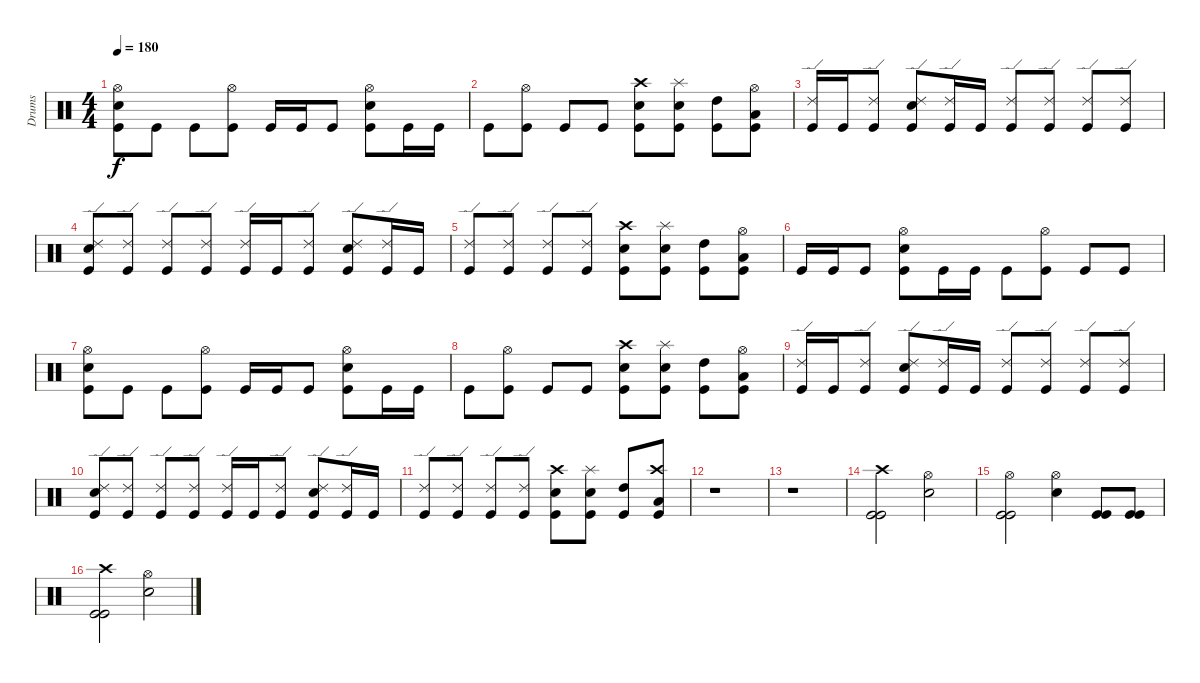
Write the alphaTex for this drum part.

\track ("Drums" "Drums") {instrument percussion}
\staff {score}
\articulation defaults
\ts (4 4)
\tempo 180
\clef neutral
\ks c
("Hi-Hat (open)" "Snare (hit) 2" "Kick (hit)").8{dy f} "Kick (hit)".8 "Kick (hit)".8 ("Hi-Hat (open)" "Kick (hit)").8 "Kick (hit)".16 "Kick (hit)".16 "Kick (hit)".8 ("Hi-Hat (open)" "Snare (hit) 2" "Kick (hit)").8 "Kick (hit)".16 "Kick (hit)".16 |
"Kick (hit)".8 ("Hi-Hat (open)" "Kick (hit)").8 "Kick (hit)".8 "Kick (hit)".8 ("Crash high (hit)" "Snare (hit) 2" "Kick (hit)").8 ("Splash (hit)" "Snare (hit) 2" "Kick (hit)").8 ("High Tom (hit)" "Kick (hit)").8 ("Hi-Hat (open)" "Low Tom (hit)" "Kick (hit)").8 |
("Ride (edge) 2" "Kick (hit)").16 "Kick (hit)".16 ("Ride (edge) 2" "Kick (hit)").8 ("Ride (edge) 2" "Snare (hit) 2" "Kick (hit)").8 ("Ride (edge) 2" "Kick (hit)").16 "Kick (hit)".16 ("Ride (edge) 2" "Kick (hit)").8 ("Ride (edge) 2" "Kick (hit)").8 ("Ride (edge) 2" "Kick (hit)").8 ("Ride (edge) 2" "Kick (hit)").8 |
("Ride (edge) 2" "Snare (hit) 2" "Kick (hit)").8 ("Ride (edge) 2" "Kick (hit)").8 ("Ride (edge) 2" "Kick (hit)").8 ("Ride (edge) 2" "Kick (hit)").8 ("Ride (edge) 2" "Kick (hit)").16 "Kick (hit)".16 ("Ride (edge) 2" "Kick (hit)").8 ("Ride (edge) 2" "Snare (hit) 2" "Kick (hit)").8 ("Ride (edge) 2" "Kick (hit)").16 "Kick (hit)".16 |
("Ride (edge) 2" "Kick (hit)").8 ("Ride (edge) 2" "Kick (hit)").8 ("Ride (edge) 2" "Kick (hit)").8 ("Ride (edge) 2" "Kick (hit)").8 ("Crash high (hit)" "Snare (hit) 2" "Kick (hit)").8 ("Splash (hit)" "Snare (hit) 2" "Kick (hit)").8 ("High Tom (hit)" "Kick (hit)").8 ("Hi-Hat (open)" "Low Tom (hit)" "Kick (hit)").8 |
"Kick (hit)".16 "Kick (hit)".16 "Kick (hit)".8 ("Hi-Hat (open)" "Snare (hit) 2" "Kick (hit)").8 "Kick (hit)".16 "Kick (hit)".16 "Kick (hit)".8 ("Hi-Hat (open)" "Kick (hit)").8 "Kick (hit)".8 "Kick (hit)".8 |
("Hi-Hat (open)" "Snare (hit) 2" "Kick (hit)").8 "Kick (hit)".8 "Kick (hit)".8 ("Hi-Hat (open)" "Kick (hit)").8 "Kick (hit)".16 "Kick (hit)".16 "Kick (hit)".8 ("Hi-Hat (open)" "Snare (hit) 2" "Kick (hit)").8 "Kick (hit)".16 "Kick (hit)".16 |
"Kick (hit)".8 ("Hi-Hat (open)" "Kick (hit)").8 "Kick (hit)".8 "Kick (hit)".8 ("Crash high (hit)" "Snare (hit) 2" "Kick (hit)").8 ("Splash (hit)" "Snare (hit) 2" "Kick (hit)").8 ("High Tom (hit)" "Kick (hit)").8 ("Hi-Hat (open)" "Low Tom (hit)" "Kick (hit)").8 |
("Ride (edge) 2" "Kick (hit)").16 "Kick (hit)".16 ("Ride (edge) 2" "Kick (hit)").8 ("Ride (edge) 2" "Snare (hit) 2" "Kick (hit)").8 ("Ride (edge) 2" "Kick (hit)").16 "Kick (hit)".16 ("Ride (edge) 2" "Kick (hit)").8 ("Ride (edge) 2" "Kick (hit)").8 ("Ride (edge) 2" "Kick (hit)").8 ("Ride (edge) 2" "Kick (hit)").8 |
("Ride (edge) 2" "Snare (hit) 2" "Kick (hit)").8 ("Ride (edge) 2" "Kick (hit)").8 ("Ride (edge) 2" "Kick (hit)").8 ("Ride (edge) 2" "Kick (hit)").8 ("Ride (edge) 2" "Kick (hit)").16 "Kick (hit)".16 ("Ride (edge) 2" "Kick (hit)").8 ("Ride (edge) 2" "Snare (hit) 2" "Kick (hit)").8 ("Ride (edge) 2" "Kick (hit)").16 "Kick (hit)".16 |
("Ride (edge) 2" "Kick (hit)").8 ("Ride (edge) 2" "Kick (hit)").8 ("Ride (edge) 2" "Kick (hit)").8 ("Ride (edge) 2" "Kick (hit)").8 ("Crash high (hit)" "Snare (hit) 2" "Kick (hit)").8 ("Splash (hit)" "Snare (hit) 2" "Kick (hit)").8 ("High Tom (hit)" "Kick (hit)").8 ("Crash high (hit)" "Low Tom (hit)" "Kick (hit)").8 |
r.1 |
r.1 |
("Crash high (hit)" "Kick (hit)" "Kick (hit)").2 ("Hi-Hat (open)" "Snare (hit) 2").2 |
("Hi-Hat (open)" "Kick (hit)" "Kick (hit)").2 ("Hi-Hat (open)" "Snare (hit) 2").4 ("Kick (hit)" "Kick (hit)").8 ("Kick (hit)" "Kick (hit)").8 |
("Crash high (hit)" "Kick (hit)" "Kick (hit)").2 ("Hi-Hat (open)" "Snare (hit) 2").2
